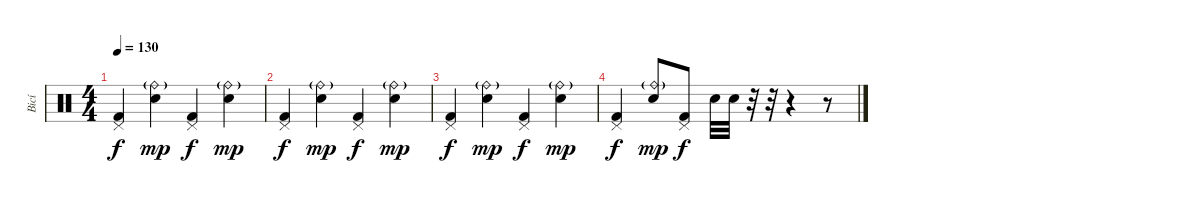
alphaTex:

\track ("Bicí" "Bicí") {instrument percussion}
\staff {score}
\articulation defaults
\ts (4 4)
\tempo 130
\clef neutral
\ks c
("Pedal Hi-Hat (hit)" "Kick (hit) 2").4{dy f} ("Ride (bell)"{g} "Electric Snare (hit)").4{dy mp} ("Pedal Hi-Hat (hit)" "Kick (hit) 2").4{dy f} ("Ride (bell)"{g} "Electric Snare (hit)").4{dy mp} |
("Pedal Hi-Hat (hit)" "Kick (hit) 2").4{dy f} ("Ride (bell)"{g} "Electric Snare (hit)").4{dy mp} ("Pedal Hi-Hat (hit)" "Kick (hit) 2").4{dy f} ("Ride (bell)"{g} "Electric Snare (hit)").4{dy mp} |
("Pedal Hi-Hat (hit)" "Kick (hit) 2").4{dy f} ("Ride (bell)"{g} "Electric Snare (hit)").4{dy mp} ("Pedal Hi-Hat (hit)" "Kick (hit) 2").4{dy f} ("Ride (bell)"{g} "Electric Snare (hit)").4{dy mp} |
("Pedal Hi-Hat (hit)" "Kick (hit) 2").4{dy f} ("Ride (bell)"{g} "Electric Snare (hit)").8{dy mp} ("Pedal Hi-Hat (hit)" "Kick (hit) 2").8{dy f} "Electric Snare (hit)".32 "Electric Snare (hit)".32 r.32 r.32 r.4 r.8
